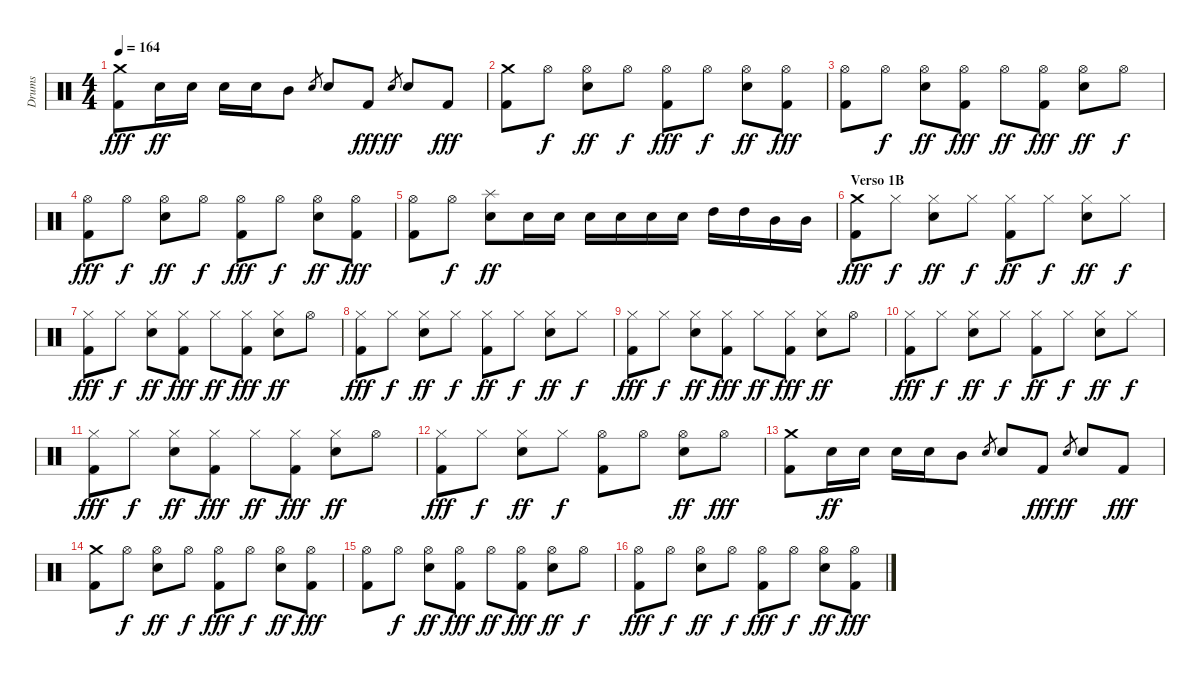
\track ("Drums" "Drums") {instrument percussion}
\staff {score}
\articulation defaults
\ts (4 4)
\tempo 164
\clef neutral
\ks c
("Crash medium (hit)" "Kick (hit) 2").8{dy fff} "Snare (hit) 2".16{dy ff} "Snare (hit) 2".16 "Snare (hit) 2".16 "Snare (hit) 2".16 "Mid Tom (hit)".8 "Snare (hit) 2".8{gr} "Snare (hit) 2".8 "Kick (hit) 2".8{dy fff} "Snare (hit) 2".8{gr dy ff} "Snare (hit) 2".8 "Kick (hit) 2".8{dy fff} |
("Crash medium (hit)" "Kick (hit) 2").8 "Hi-Hat (open)".8{dy f} ("Hi-Hat (open)" "Snare (hit) 2").8{dy ff} "Hi-Hat (open)".8{dy f} ("Hi-Hat (open)" "Kick (hit) 2").8{dy fff} "Hi-Hat (open)".8{dy f} ("Hi-Hat (open)" "Snare (hit) 2").8{dy ff} ("Hi-Hat (open)" "Kick (hit) 2").8{dy fff} |
("Hi-Hat (open)" "Kick (hit) 2").8 "Hi-Hat (open)".8{dy f} ("Hi-Hat (open)" "Snare (hit) 2").8{dy ff} ("Hi-Hat (open)" "Kick (hit) 2").8{dy fff} "Hi-Hat (open)".8{dy ff} ("Hi-Hat (open)" "Kick (hit) 2").8{dy fff} ("Hi-Hat (open)" "Snare (hit) 2").8{dy ff} "Hi-Hat (open)".8{dy f} |
("Hi-Hat (open)" "Kick (hit) 2").8{dy fff} "Hi-Hat (open)".8{dy f} ("Hi-Hat (open)" "Snare (hit) 2").8{dy ff} "Hi-Hat (open)".8{dy f} ("Hi-Hat (open)" "Kick (hit) 2").8{dy fff} "Hi-Hat (open)".8{dy f} ("Hi-Hat (open)" "Snare (hit) 2").8{dy ff} ("Hi-Hat (open)" "Kick (hit) 2").8{dy fff} |
("Hi-Hat (open)" "Kick (hit) 2").8 "Hi-Hat (open)".8{dy f} ("Splash (hit)" "Snare (hit) 2").8{dy ff} "Snare (hit) 2".16 "Snare (hit) 2".16 "Snare (hit) 2".16 "Snare (hit) 2".16 "Snare (hit) 2".16 "Snare (hit) 2".16 "High Tom (hit)".16 "High Tom (hit)".16 "Mid Tom (hit)".16 "Mid Tom (hit)".16 |
\section ("" "Verso 1B")
("Crash medium (hit)" "Kick (hit) 2").8{dy fff} "Hi-Hat (closed)".8{dy f} ("Hi-Hat (closed)" "Snare (hit) 2").8{dy ff} "Hi-Hat (closed)".8{dy f} ("Hi-Hat (closed)" "Kick (hit) 2").8{dy ff} "Hi-Hat (closed)".8{dy f} ("Hi-Hat (closed)" "Snare (hit) 2").8{dy ff} "Hi-Hat (closed)".8{dy f} |
("Hi-Hat (closed)" "Kick (hit) 2").8{dy fff} "Hi-Hat (closed)".8{dy f} ("Hi-Hat (closed)" "Snare (hit) 2").8{dy ff} ("Hi-Hat (closed)" "Kick (hit) 2").8{dy fff} "Hi-Hat (closed)".8{dy ff} ("Hi-Hat (closed)" "Kick (hit) 2").8{dy fff} ("Hi-Hat (closed)" "Snare (hit) 2").8{dy ff} "Hi-Hat (open)".8 |
("Hi-Hat (closed)" "Kick (hit) 2").8{dy fff} "Hi-Hat (closed)".8{dy f} ("Hi-Hat (closed)" "Snare (hit) 2").8{dy ff} "Hi-Hat (closed)".8{dy f} ("Hi-Hat (closed)" "Kick (hit) 2").8{dy ff} "Hi-Hat (closed)".8{dy f} ("Hi-Hat (closed)" "Snare (hit) 2").8{dy ff} "Hi-Hat (closed)".8{dy f} |
("Hi-Hat (closed)" "Kick (hit) 2").8{dy fff} "Hi-Hat (closed)".8{dy f} ("Hi-Hat (closed)" "Snare (hit) 2").8{dy ff} ("Hi-Hat (closed)" "Kick (hit) 2").8{dy fff} "Hi-Hat (closed)".8{dy ff} ("Hi-Hat (closed)" "Kick (hit) 2").8{dy fff} ("Hi-Hat (closed)" "Snare (hit) 2").8{dy ff} "Hi-Hat (open)".8 |
("Hi-Hat (closed)" "Kick (hit) 2").8{dy fff} "Hi-Hat (closed)".8{dy f} ("Hi-Hat (closed)" "Snare (hit) 2").8{dy ff} "Hi-Hat (closed)".8{dy f} ("Hi-Hat (closed)" "Kick (hit) 2").8{dy ff} "Hi-Hat (closed)".8{dy f} ("Hi-Hat (closed)" "Snare (hit) 2").8{dy ff} "Hi-Hat (closed)".8{dy f} |
("Hi-Hat (closed)" "Kick (hit) 2").8{dy fff} "Hi-Hat (closed)".8{dy f} ("Hi-Hat (closed)" "Snare (hit) 2").8{dy ff} ("Hi-Hat (closed)" "Kick (hit) 2").8{dy fff} "Hi-Hat (closed)".8{dy ff} ("Hi-Hat (closed)" "Kick (hit) 2").8{dy fff} ("Hi-Hat (closed)" "Snare (hit) 2").8{dy ff} "Hi-Hat (open)".8 |
("Hi-Hat (closed)" "Kick (hit) 2").8{dy fff} "Hi-Hat (closed)".8{dy f} ("Hi-Hat (closed)" "Snare (hit) 2").8{dy ff} "Hi-Hat (closed)".8{dy f} ("Hi-Hat (open)" "Kick (hit) 2").8 "Hi-Hat (open)".8 ("Hi-Hat (open)" "Snare (hit) 2").8{dy ff} "Hi-Hat (open)".8{dy fff} |
("Crash medium (hit)" "Kick (hit) 2").8 "Snare (hit) 2".16{dy ff} "Snare (hit) 2".16 "Snare (hit) 2".16 "Snare (hit) 2".16 "Mid Tom (hit)".8 "Snare (hit) 2".8{gr} "Snare (hit) 2".8 "Kick (hit) 2".8{dy fff} "Snare (hit) 2".8{gr dy ff} "Snare (hit) 2".8 "Kick (hit) 2".8{dy fff} |
("Crash medium (hit)" "Kick (hit) 2").8 "Hi-Hat (open)".8{dy f} ("Hi-Hat (open)" "Snare (hit) 2").8{dy ff} "Hi-Hat (open)".8{dy f} ("Hi-Hat (open)" "Kick (hit) 2").8{dy fff} "Hi-Hat (open)".8{dy f} ("Hi-Hat (open)" "Snare (hit) 2").8{dy ff} ("Hi-Hat (open)" "Kick (hit) 2").8{dy fff} |
("Hi-Hat (open)" "Kick (hit) 2").8 "Hi-Hat (open)".8{dy f} ("Hi-Hat (open)" "Snare (hit) 2").8{dy ff} ("Hi-Hat (open)" "Kick (hit) 2").8{dy fff} "Hi-Hat (open)".8{dy ff} ("Hi-Hat (open)" "Kick (hit) 2").8{dy fff} ("Hi-Hat (open)" "Snare (hit) 2").8{dy ff} "Hi-Hat (open)".8{dy f} |
("Hi-Hat (open)" "Kick (hit) 2").8{dy fff} "Hi-Hat (open)".8{dy f} ("Hi-Hat (open)" "Snare (hit) 2").8{dy ff} "Hi-Hat (open)".8{dy f} ("Hi-Hat (open)" "Kick (hit) 2").8{dy fff} "Hi-Hat (open)".8{dy f} ("Hi-Hat (open)" "Snare (hit) 2").8{dy ff} ("Hi-Hat (open)" "Kick (hit) 2").8{dy fff}
